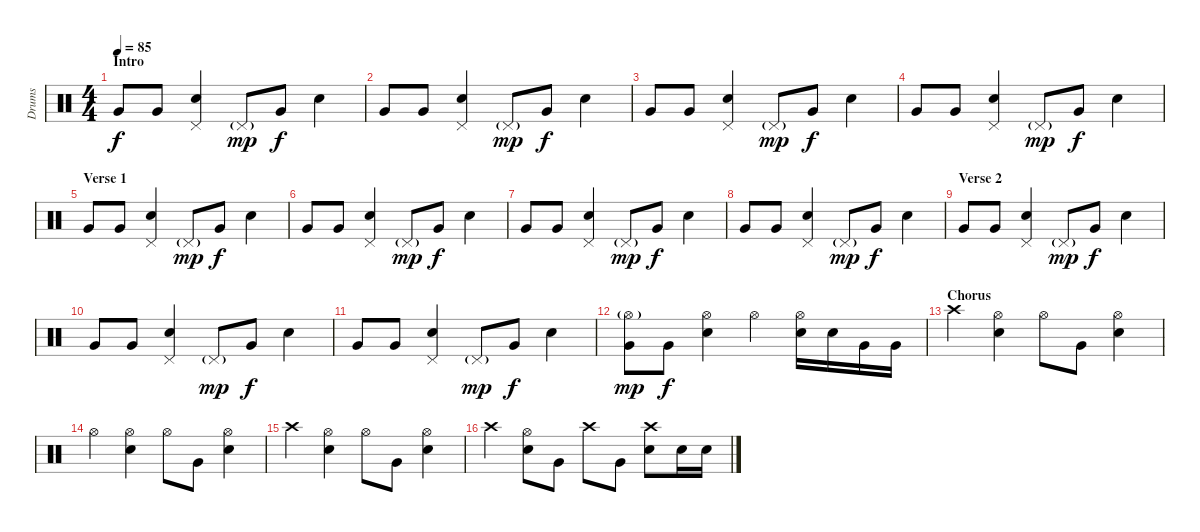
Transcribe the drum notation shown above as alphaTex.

\track ("Drums" "Drums") {instrument percussion}
\staff {score}
\articulation defaults
\ts (4 4)
\section ("" "Intro")
\tempo 85
\clef neutral
\ks c "Very Low Tom (hit)".8{dy f} "Very Low Tom (hit)".8
("Pedal Hi-Hat (hit)" "Electric Snare (hit)").4 "Pedal Hi-Hat (hit)"{g}.8{dy mp} "Very Low Tom (hit)".8{dy f} "Electric Snare (hit)".4 |
"Very Low Tom (hit)".8 "Very Low Tom (hit)".8 ("Pedal Hi-Hat (hit)" "Electric Snare (hit)").4 "Pedal Hi-Hat (hit)"{g}.8{dy mp} "Very Low Tom (hit)".8{dy f} "Electric Snare (hit)".4 |
"Very Low Tom (hit)".8 "Very Low Tom (hit)".8 ("Pedal Hi-Hat (hit)" "Electric Snare (hit)").4 "Pedal Hi-Hat (hit)"{g}.8{dy mp} "Very Low Tom (hit)".8{dy f} "Electric Snare (hit)".4 |
"Very Low Tom (hit)".8 "Very Low Tom (hit)".8 ("Pedal Hi-Hat (hit)" "Electric Snare (hit)").4 "Pedal Hi-Hat (hit)"{g}.8{dy mp} "Very Low Tom (hit)".8{dy f} "Electric Snare (hit)".4 |
\section ("" "Verse 1")
"Very Low Tom (hit)".8 "Very Low Tom (hit)".8 ("Pedal Hi-Hat (hit)" "Electric Snare (hit)").4 "Pedal Hi-Hat (hit)"{g}.8{dy mp} "Very Low Tom (hit)".8{dy f} "Electric Snare (hit)".4 |
"Very Low Tom (hit)".8 "Very Low Tom (hit)".8 ("Pedal Hi-Hat (hit)" "Electric Snare (hit)").4 "Pedal Hi-Hat (hit)"{g}.8{dy mp} "Very Low Tom (hit)".8{dy f} "Electric Snare (hit)".4 |
"Very Low Tom (hit)".8 "Very Low Tom (hit)".8 ("Pedal Hi-Hat (hit)" "Electric Snare (hit)").4 "Pedal Hi-Hat (hit)"{g}.8{dy mp} "Very Low Tom (hit)".8{dy f} "Electric Snare (hit)".4 |
"Very Low Tom (hit)".8 "Very Low Tom (hit)".8 ("Pedal Hi-Hat (hit)" "Electric Snare (hit)").4 "Pedal Hi-Hat (hit)"{g}.8{dy mp} "Very Low Tom (hit)".8{dy f} "Electric Snare (hit)".4 |
\section ("" "Verse 2")
"Very Low Tom (hit)".8 "Very Low Tom (hit)".8 ("Pedal Hi-Hat (hit)" "Electric Snare (hit)").4 "Pedal Hi-Hat (hit)"{g}.8{dy mp} "Very Low Tom (hit)".8{dy f} "Electric Snare (hit)".4 |
"Very Low Tom (hit)".8 "Very Low Tom (hit)".8 ("Pedal Hi-Hat (hit)" "Electric Snare (hit)").4 "Pedal Hi-Hat (hit)"{g}.8{dy mp} "Very Low Tom (hit)".8{dy f} "Electric Snare (hit)".4 |
"Very Low Tom (hit)".8 "Very Low Tom (hit)".8 ("Pedal Hi-Hat (hit)" "Electric Snare (hit)").4 "Pedal Hi-Hat (hit)"{g}.8{dy mp} "Very Low Tom (hit)".8{dy f} "Electric Snare (hit)".4 |
("Hi-Hat (open)"{g} "Very Low Tom (hit)").8{dy mp} "Very Low Tom (hit)".8{dy f} ("Hi-Hat (open)" "Electric Snare (hit)").4 "Hi-Hat (open)".4 ("Hi-Hat (open)" "Electric Snare (hit)").16 "Electric Snare (hit)".16 "Very Low Tom (hit)".16 "Very Low Tom (hit)".16 |
\section ("" "Chorus")
"Crash high (hit)".4 ("Hi-Hat (open)" "Electric Snare (hit)").4 "Hi-Hat (open)".8 "Very Low Tom (hit)".8 ("Hi-Hat (open)" "Electric Snare (hit)").4 |
"Hi-Hat (open)".4 ("Hi-Hat (open)" "Electric Snare (hit)").4 "Hi-Hat (open)".8 "Very Low Tom (hit)".8 ("Hi-Hat (open)" "Electric Snare (hit)").4 |
"Crash high (hit)".4 ("Hi-Hat (open)" "Electric Snare (hit)").4 "Hi-Hat (open)".8 "Very Low Tom (hit)".8 ("Hi-Hat (open)" "Electric Snare (hit)").4 |
"Crash high (hit)".4 ("Hi-Hat (open)" "Electric Snare (hit)").8 "Very Low Tom (hit)".8 "Crash high (hit)".8 "Very Low Tom (hit)".8 ("Crash high (hit)" "Electric Snare (hit)").8 "Electric Snare (hit)".16 "Electric Snare (hit)".16
